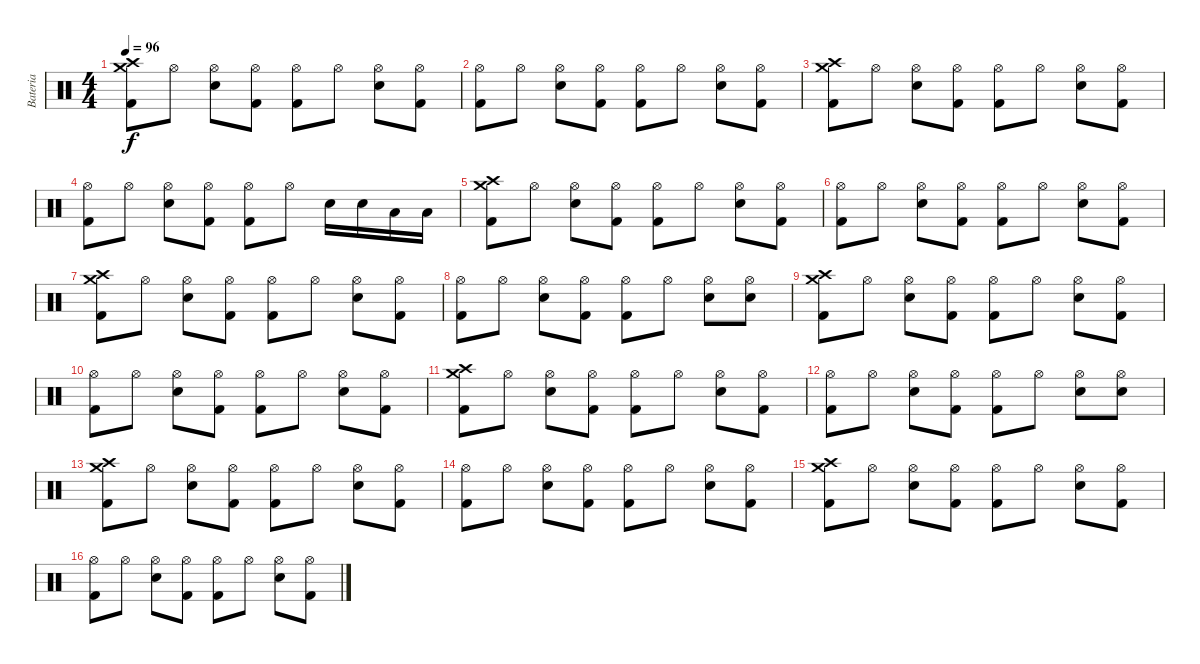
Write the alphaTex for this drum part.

\track ("Bateria" "Bateria") {instrument percussion}
\staff {score}
\articulation defaults
\ts (4 4)
\tempo 96
\clef neutral
\ks c
("Crash high (hit)" "Crash medium (hit)" "Kick (hit) 2").8{dy f} "Hi-Hat (open)".8 ("Hi-Hat (open)" "Snare (hit) 2").8 ("Hi-Hat (open)" "Kick (hit) 2").8 ("Hi-Hat (open)" "Kick (hit) 2").8 "Hi-Hat (open)".8 ("Hi-Hat (open)" "Snare (hit) 2").8 ("Hi-Hat (open)" "Kick (hit) 2").8 |
("Hi-Hat (open)" "Kick (hit) 2").8 "Hi-Hat (open)".8 ("Hi-Hat (open)" "Snare (hit) 2").8 ("Hi-Hat (open)" "Kick (hit) 2").8 ("Hi-Hat (open)" "Kick (hit) 2").8 "Hi-Hat (open)".8 ("Hi-Hat (open)" "Snare (hit) 2").8 ("Hi-Hat (open)" "Kick (hit) 2").8 |
("Crash high (hit)" "Crash medium (hit)" "Kick (hit) 2").8 "Hi-Hat (open)".8 ("Hi-Hat (open)" "Snare (hit) 2").8 ("Hi-Hat (open)" "Kick (hit) 2").8 ("Hi-Hat (open)" "Kick (hit) 2").8 "Hi-Hat (open)".8 ("Hi-Hat (open)" "Snare (hit) 2").8 ("Hi-Hat (open)" "Kick (hit) 2").8 |
("Hi-Hat (open)" "Kick (hit) 2").8 "Hi-Hat (open)".8 ("Hi-Hat (open)" "Snare (hit) 2").8 ("Hi-Hat (open)" "Kick (hit) 2").8 ("Hi-Hat (open)" "Kick (hit) 2").8 "Hi-Hat (open)".8 "Snare (hit) 2".16 "Snare (hit) 2".16 "Low Tom (hit)".16 "Low Tom (hit)".16 |
("Crash high (hit)" "Crash medium (hit)" "Kick (hit) 2").8 "Hi-Hat (open)".8 ("Hi-Hat (open)" "Snare (hit) 2").8 ("Hi-Hat (open)" "Kick (hit) 2").8 ("Hi-Hat (open)" "Kick (hit) 2").8 "Hi-Hat (open)".8 ("Hi-Hat (open)" "Snare (hit) 2").8 ("Hi-Hat (open)" "Kick (hit) 2").8 |
("Hi-Hat (open)" "Kick (hit) 2").8 "Hi-Hat (open)".8 ("Hi-Hat (open)" "Snare (hit) 2").8 ("Hi-Hat (open)" "Kick (hit) 2").8 ("Hi-Hat (open)" "Kick (hit) 2").8 "Hi-Hat (open)".8 ("Hi-Hat (open)" "Snare (hit) 2").8 ("Hi-Hat (open)" "Kick (hit) 2").8 |
("Crash high (hit)" "Crash medium (hit)" "Kick (hit) 2").8 "Hi-Hat (open)".8 ("Hi-Hat (open)" "Snare (hit) 2").8 ("Hi-Hat (open)" "Kick (hit) 2").8 ("Hi-Hat (open)" "Kick (hit) 2").8 "Hi-Hat (open)".8 ("Hi-Hat (open)" "Snare (hit) 2").8 ("Hi-Hat (open)" "Kick (hit) 2").8 |
("Hi-Hat (open)" "Kick (hit) 2").8 "Hi-Hat (open)".8 ("Hi-Hat (open)" "Snare (hit) 2").8 ("Hi-Hat (open)" "Kick (hit) 2").8 ("Hi-Hat (open)" "Kick (hit) 2").8 "Hi-Hat (open)".8 ("Hi-Hat (open)" "Snare (hit) 2").8 ("Hi-Hat (open)" "Snare (hit) 2").8 |
("Crash high (hit)" "Crash medium (hit)" "Kick (hit) 2").8 "Hi-Hat (open)".8 ("Hi-Hat (open)" "Snare (hit) 2").8 ("Hi-Hat (open)" "Kick (hit) 2").8 ("Hi-Hat (open)" "Kick (hit) 2").8 "Hi-Hat (open)".8 ("Hi-Hat (open)" "Snare (hit) 2").8 ("Hi-Hat (open)" "Kick (hit) 2").8 |
("Hi-Hat (open)" "Kick (hit) 2").8 "Hi-Hat (open)".8 ("Hi-Hat (open)" "Snare (hit) 2").8 ("Hi-Hat (open)" "Kick (hit) 2").8 ("Hi-Hat (open)" "Kick (hit) 2").8 "Hi-Hat (open)".8 ("Hi-Hat (open)" "Snare (hit) 2").8 ("Hi-Hat (open)" "Kick (hit) 2").8 |
("Crash high (hit)" "Crash medium (hit)" "Kick (hit) 2").8 "Hi-Hat (open)".8 ("Hi-Hat (open)" "Snare (hit) 2").8 ("Hi-Hat (open)" "Kick (hit) 2").8 ("Hi-Hat (open)" "Kick (hit) 2").8 "Hi-Hat (open)".8 ("Hi-Hat (open)" "Snare (hit) 2").8 ("Hi-Hat (open)" "Kick (hit) 2").8 |
("Hi-Hat (open)" "Kick (hit) 2").8 "Hi-Hat (open)".8 ("Hi-Hat (open)" "Snare (hit) 2").8 ("Hi-Hat (open)" "Kick (hit) 2").8 ("Hi-Hat (open)" "Kick (hit) 2").8 "Hi-Hat (open)".8 ("Hi-Hat (open)" "Snare (hit) 2").8 ("Hi-Hat (open)" "Snare (hit) 2").8 |
("Crash high (hit)" "Crash medium (hit)" "Kick (hit) 2").8 "Hi-Hat (open)".8 ("Hi-Hat (open)" "Snare (hit) 2").8 ("Hi-Hat (open)" "Kick (hit) 2").8 ("Hi-Hat (open)" "Kick (hit) 2").8 "Hi-Hat (open)".8 ("Hi-Hat (open)" "Snare (hit) 2").8 ("Hi-Hat (open)" "Kick (hit) 2").8 |
("Hi-Hat (open)" "Kick (hit) 2").8 "Hi-Hat (open)".8 ("Hi-Hat (open)" "Snare (hit) 2").8 ("Hi-Hat (open)" "Kick (hit) 2").8 ("Hi-Hat (open)" "Kick (hit) 2").8 "Hi-Hat (open)".8 ("Hi-Hat (open)" "Snare (hit) 2").8 ("Hi-Hat (open)" "Kick (hit) 2").8 |
("Crash high (hit)" "Crash medium (hit)" "Kick (hit) 2").8 "Hi-Hat (open)".8 ("Hi-Hat (open)" "Snare (hit) 2").8 ("Hi-Hat (open)" "Kick (hit) 2").8 ("Hi-Hat (open)" "Kick (hit) 2").8 "Hi-Hat (open)".8 ("Hi-Hat (open)" "Snare (hit) 2").8 ("Hi-Hat (open)" "Kick (hit) 2").8 |
("Hi-Hat (open)" "Kick (hit) 2").8 "Hi-Hat (open)".8 ("Hi-Hat (open)" "Snare (hit) 2").8 ("Hi-Hat (open)" "Kick (hit) 2").8 ("Hi-Hat (open)" "Kick (hit) 2").8 "Hi-Hat (open)".8 ("Hi-Hat (open)" "Snare (hit) 2").8 ("Hi-Hat (open)" "Kick (hit) 2").8
